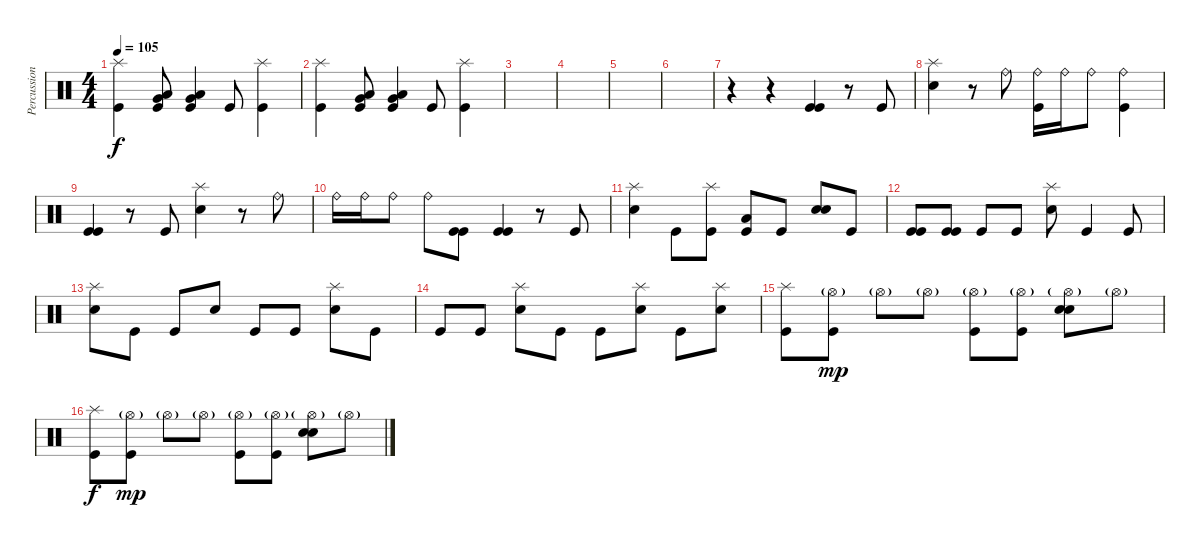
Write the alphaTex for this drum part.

\track ("Percussion" "Percussion") {instrument percussion}
\staff {score}
\articulation defaults
\ts (4 4)
\tempo 105
\clef neutral
\ks c
("Splash (hit)" "Kick (hit)").4{dy f} ("Low Floor Tom (hit)" "Very Low Tom (hit)" "Kick (hit)").8 ("Low Floor Tom (hit)" "Very Low Tom (hit)" "Kick (hit)").4 "Kick (hit)".8 ("Splash (hit)" "Kick (hit)").4 |
("Splash (hit)" "Kick (hit)").4 ("Low Floor Tom (hit)" "Very Low Tom (hit)" "Kick (hit)").8 ("Low Floor Tom (hit)" "Very Low Tom (hit)" "Kick (hit)").4 "Kick (hit)".8 ("Splash (hit)" "Kick (hit)").4 |
|
|
|
|
r.4 r.4 ("Kick (hit)" "Kick (hit)").4 r.8 "Kick (hit)".8 |
("Splash (hit)" "Snare (hit) 2").4 r.8 "Ride (bell)".8 ("Kick (hit)" "Ride (bell)").16 "Ride (bell)".16 "Ride (bell)".8 ("Kick (hit)" "Ride (bell)").4 |
("Kick (hit)" "Kick (hit)").4 r.8 "Kick (hit)".8 ("Snare (hit) 2" "Splash (hit)").4 r.8 "Ride (bell)".8 |
"Ride (bell)".16 "Ride (bell)".16 "Ride (bell)".8 "Ride (bell)".8 ("Kick (hit)" "Kick (hit)").8 ("Kick (hit)" "Kick (hit)").4 r.8 "Kick (hit)".8 |
("Splash (hit)" "Snare (hit) 2").4 "Kick (hit)".8 ("Kick (hit)" "Splash (hit)").8 ("Kick (hit)" "Low Floor Tom (hit)").8 "Kick (hit)".8 ("Snare (hit) 2" "Snare (hit) 2").8 "Kick (hit)".8 |
("Kick (hit)" "Kick (hit)").8 ("Kick (hit)" "Kick (hit)").8 "Kick (hit)".8 "Kick (hit)".8 ("Splash (hit)" "Snare (hit) 2").8 "Kick (hit)".4 "Kick (hit)".8 |
("Splash (hit)" "Snare (hit) 2").8 "Kick (hit)".8 "Kick (hit)".8 "Snare (hit) 2".8 "Kick (hit)".8 "Kick (hit)".8 ("Splash (hit)" "Snare (hit) 2").8 "Kick (hit)".8 |
"Kick (hit)".8 "Kick (hit)".8 ("Splash (hit)" "Snare (hit) 2").8 "Kick (hit)".8 "Kick (hit)".8 ("Splash (hit)" "Snare (hit) 2").8 "Kick (hit)".8 ("Splash (hit)" "Snare (hit) 2").8 |
("Splash (hit)" "Kick (hit)").8 ("Hi-Hat (open)"{g} "Kick (hit)").8{dy mp} "Hi-Hat (open)"{g}.8 "Hi-Hat (open)"{g}.8 ("Hi-Hat (open)"{g} "Kick (hit)").8 ("Hi-Hat (open)"{g} "Kick (hit)").8 ("Snare (hit) 2" "Hi-Hat (open)"{g} "Snare (hit) 2").8 "Hi-Hat (open)"{g}.8 |
("Splash (hit)" "Kick (hit)").8{dy f} ("Hi-Hat (open)"{g} "Kick (hit)").8{dy mp} "Hi-Hat (open)"{g}.8 "Hi-Hat (open)"{g}.8 ("Hi-Hat (open)"{g} "Kick (hit)").8 ("Hi-Hat (open)"{g} "Kick (hit)").8 ("Snare (hit) 2" "Hi-Hat (open)"{g} "Snare (hit) 2").8 "Hi-Hat (open)"{g}.8
